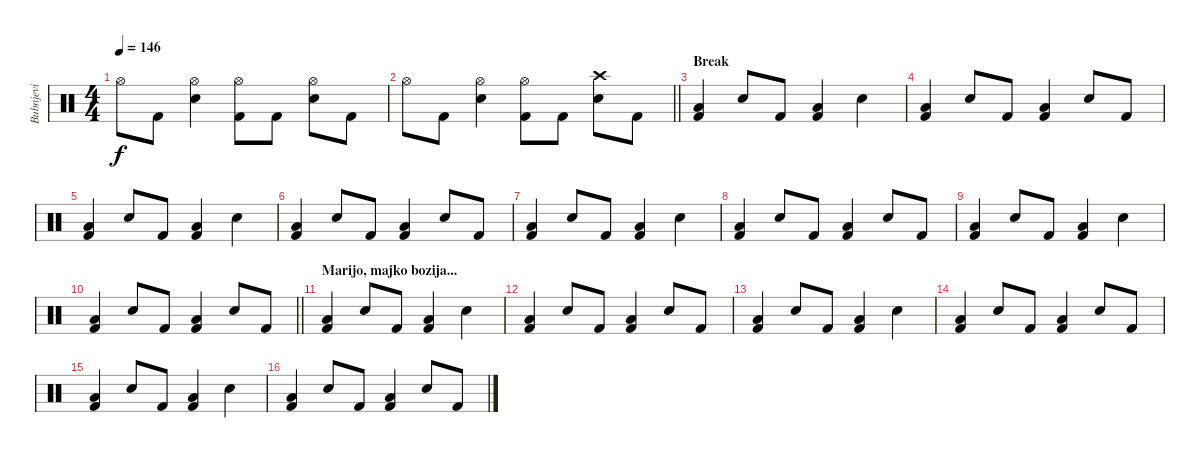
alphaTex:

\track ("Bubnjevi" "Bubnjevi") {instrument percussion}
\staff {score}
\articulation defaults
\ts (4 4)
\tempo 146
\clef neutral
\ks c "Hi-Hat (open)".8{dy f} "Kick (hit) 2".8
("Hi-Hat (open)" "Electric Snare (hit)").4 ("Hi-Hat (open)" "Kick (hit) 2").8 "Kick (hit) 2".8 ("Hi-Hat (open)" "Electric Snare (hit)").8 "Kick (hit) 2".8 |
\barLineRight lightlight "Hi-Hat (open)".8 "Kick (hit) 2".8
("Hi-Hat (open)" "Electric Snare (hit)").4 ("Hi-Hat (open)" "Kick (hit) 2").8 "Kick (hit) 2".8 ("Crash high (hit)" "Electric Snare (hit)").8 "Kick (hit) 2".8 |
\section ("" "Break")
("Low Tom (hit)" "Kick (hit) 2").4 "Electric Snare (hit)".8 "Kick (hit) 2".8 ("Low Tom (hit)" "Kick (hit) 2").4 "Electric Snare (hit)".4 |
("Low Tom (hit)" "Kick (hit) 2").4 "Electric Snare (hit)".8 "Kick (hit) 2".8 ("Low Tom (hit)" "Kick (hit) 2").4 "Electric Snare (hit)".8 "Kick (hit) 2".8 |
("Low Tom (hit)" "Kick (hit) 2").4 "Electric Snare (hit)".8 "Kick (hit) 2".8 ("Low Tom (hit)" "Kick (hit) 2").4 "Electric Snare (hit)".4 |
("Low Tom (hit)" "Kick (hit) 2").4 "Electric Snare (hit)".8 "Kick (hit) 2".8 ("Low Tom (hit)" "Kick (hit) 2").4 "Electric Snare (hit)".8 "Kick (hit) 2".8 |
("Low Tom (hit)" "Kick (hit) 2").4 "Electric Snare (hit)".8 "Kick (hit) 2".8 ("Low Tom (hit)" "Kick (hit) 2").4 "Electric Snare (hit)".4 |
("Low Tom (hit)" "Kick (hit) 2").4 "Electric Snare (hit)".8 "Kick (hit) 2".8 ("Low Tom (hit)" "Kick (hit) 2").4 "Electric Snare (hit)".8 "Kick (hit) 2".8 |
("Low Tom (hit)" "Kick (hit) 2").4 "Electric Snare (hit)".8 "Kick (hit) 2".8 ("Low Tom (hit)" "Kick (hit) 2").4 "Electric Snare (hit)".4 |
\barLineRight lightlight
("Low Tom (hit)" "Kick (hit) 2").4 "Electric Snare (hit)".8 "Kick (hit) 2".8 ("Low Tom (hit)" "Kick (hit) 2").4 "Electric Snare (hit)".8 "Kick (hit) 2".8 |
\section ("" "Marijo, majko bozija...")
("Low Tom (hit)" "Kick (hit) 2").4 "Electric Snare (hit)".8 "Kick (hit) 2".8 ("Low Tom (hit)" "Kick (hit) 2").4 "Electric Snare (hit)".4 |
("Low Tom (hit)" "Kick (hit) 2").4 "Electric Snare (hit)".8 "Kick (hit) 2".8 ("Low Tom (hit)" "Kick (hit) 2").4 "Electric Snare (hit)".8 "Kick (hit) 2".8 |
("Low Tom (hit)" "Kick (hit) 2").4 "Electric Snare (hit)".8 "Kick (hit) 2".8 ("Low Tom (hit)" "Kick (hit) 2").4 "Electric Snare (hit)".4 |
("Low Tom (hit)" "Kick (hit) 2").4 "Electric Snare (hit)".8 "Kick (hit) 2".8 ("Low Tom (hit)" "Kick (hit) 2").4 "Electric Snare (hit)".8 "Kick (hit) 2".8 |
("Low Tom (hit)" "Kick (hit) 2").4 "Electric Snare (hit)".8 "Kick (hit) 2".8 ("Low Tom (hit)" "Kick (hit) 2").4 "Electric Snare (hit)".4 |
("Low Tom (hit)" "Kick (hit) 2").4 "Electric Snare (hit)".8 "Kick (hit) 2".8 ("Low Tom (hit)" "Kick (hit) 2").4 "Electric Snare (hit)".8 "Kick (hit) 2".8
